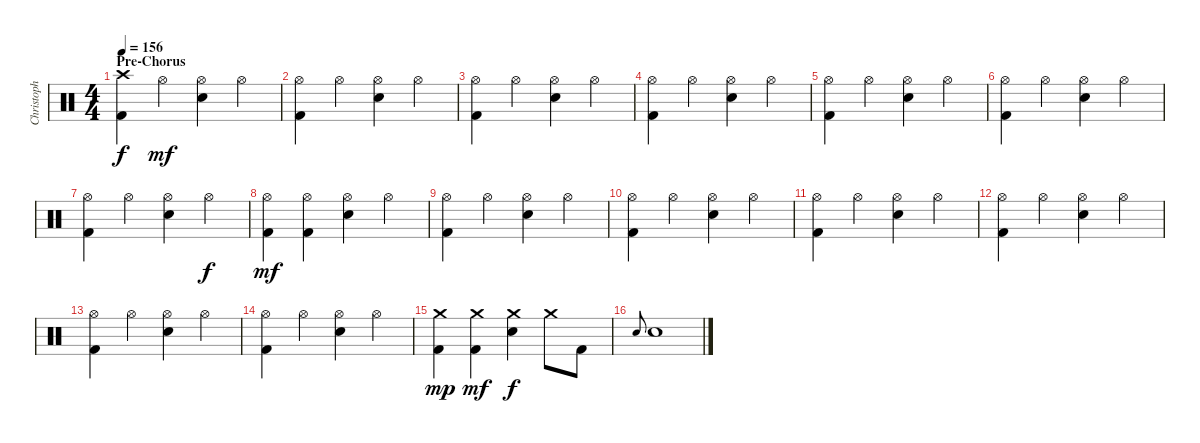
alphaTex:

\track ("Christoph Schneider" "Christoph ") {instrument percussion}
\staff {score}
\articulation defaults
\ts (4 4)
\section ("" "Pre-Chorus")
\tempo 156
\clef neutral
\ks c
("Crash high (hit)" "Kick (hit) 2").4{dy f} "Hi-Hat (open)".4{dy mf} ("Hi-Hat (open)" "Snare (hit) 2").4 "Hi-Hat (open)".4 |
("Hi-Hat (open)" "Kick (hit) 2").4 "Hi-Hat (open)".4 ("Hi-Hat (open)" "Snare (hit) 2").4 "Hi-Hat (open)".4 |
("Hi-Hat (open)" "Kick (hit) 2").4 "Hi-Hat (open)".4 ("Hi-Hat (open)" "Snare (hit) 2").4 "Hi-Hat (open)".4 |
("Hi-Hat (open)" "Kick (hit) 2").4 "Hi-Hat (open)".4 ("Hi-Hat (open)" "Snare (hit) 2").4 "Hi-Hat (open)".4 |
("Hi-Hat (open)" "Kick (hit) 2").4 "Hi-Hat (open)".4 ("Hi-Hat (open)" "Snare (hit) 2").4 "Hi-Hat (open)".4 |
("Hi-Hat (open)" "Kick (hit) 2").4 "Hi-Hat (open)".4 ("Hi-Hat (open)" "Snare (hit) 2").4 "Hi-Hat (open)".4 |
("Hi-Hat (open)" "Kick (hit) 2").4 "Hi-Hat (open)".4 ("Hi-Hat (open)" "Snare (hit) 2").4 "Hi-Hat (open)".4{dy f} |
("Hi-Hat (open)" "Kick (hit) 2").4{dy mf} ("Hi-Hat (open)" "Kick (hit) 2").4 ("Hi-Hat (open)" "Snare (hit) 2").4 "Hi-Hat (open)".4 |
("Hi-Hat (open)" "Kick (hit) 2").4 "Hi-Hat (open)".4 ("Hi-Hat (open)" "Snare (hit) 2").4 "Hi-Hat (open)".4 |
("Hi-Hat (open)" "Kick (hit) 2").4 "Hi-Hat (open)".4 ("Hi-Hat (open)" "Snare (hit) 2").4 "Hi-Hat (open)".4 |
("Hi-Hat (open)" "Kick (hit) 2").4 "Hi-Hat (open)".4 ("Hi-Hat (open)" "Snare (hit) 2").4 "Hi-Hat (open)".4 |
("Hi-Hat (open)" "Kick (hit) 2").4 "Hi-Hat (open)".4 ("Hi-Hat (open)" "Snare (hit) 2").4 "Hi-Hat (open)".4 |
("Hi-Hat (open)" "Kick (hit) 2").4 "Hi-Hat (open)".4 ("Hi-Hat (open)" "Snare (hit) 2").4 "Hi-Hat (open)".4 |
("Hi-Hat (open)" "Kick (hit) 2").4 "Hi-Hat (open)".4 ("Hi-Hat (open)" "Snare (hit) 2").4 "Hi-Hat (open)".4 |
("Crash medium (hit)" "Kick (hit) 2").4{dy mp} ("Crash medium (hit)" "Kick (hit) 2").4{dy mf} ("Crash medium (hit)" "Snare (hit) 2").4{dy f} "Crash medium (hit)".8 "Kick (hit) 2".8 |
"Snare (hit) 2".8{gr onbeat} "Snare (hit) 2".1
